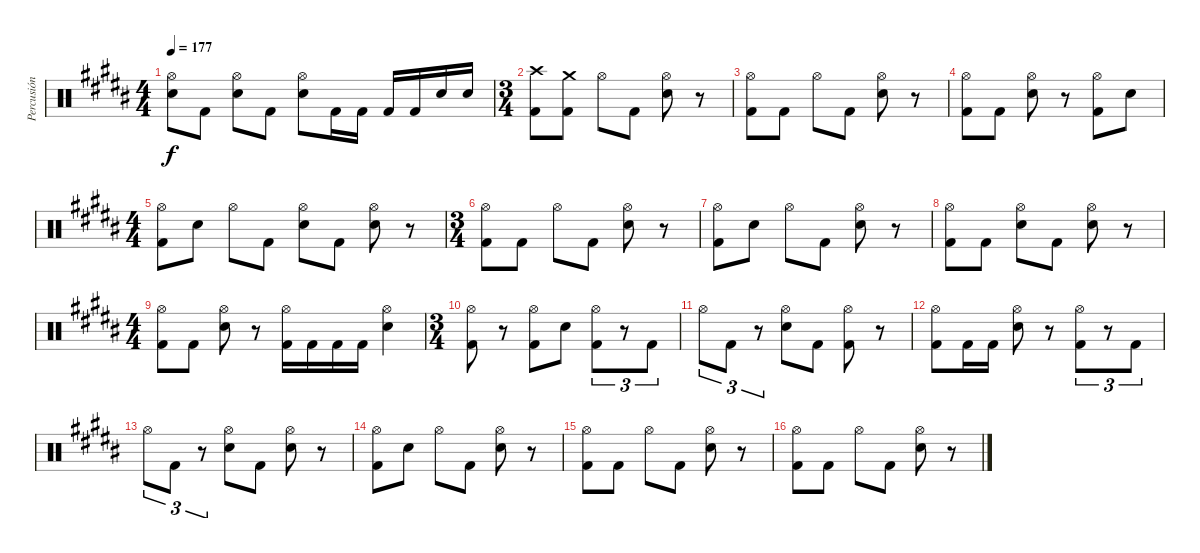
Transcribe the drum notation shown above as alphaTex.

\track ("Percusión" "Percusión") {instrument percussion}
\staff {score}
\articulation defaults
\ts (4 4)
\tempo 177
\clef neutral
\ks g#minor
("Snare (hit) 2" "Hi-Hat (open)").8{dy f} "Kick (hit) 2".8 ("Snare (hit) 2" "Hi-Hat (open)").8 "Kick (hit) 2".8 ("Snare (hit) 2" "Hi-Hat (open)").8 "Kick (hit) 2".16 "Kick (hit) 2".16 "Kick (hit) 2".16 "Kick (hit) 2".16 "Snare (hit) 2".16 "Snare (hit) 2".16 |
\ts (3 4)
("Kick (hit) 2" "Crash high (hit)").8 ("Kick (hit) 2" "Crash medium (hit)").8 "Hi-Hat (open)".8 "Kick (hit) 2".8 ("Snare (hit) 2" "Hi-Hat (open)").8 r.8 |
("Kick (hit) 2" "Hi-Hat (open)").8 "Kick (hit) 2".8 "Hi-Hat (open)".8 "Kick (hit) 2".8 ("Snare (hit) 2" "Hi-Hat (open)").8 r.8 |
("Kick (hit) 2" "Hi-Hat (open)").8 "Kick (hit) 2".8 ("Snare (hit) 2" "Hi-Hat (open)").8 r.8 ("Kick (hit) 2" "Hi-Hat (open)").8 "Snare (hit) 2".8 |
\ts (4 4)
("Kick (hit) 2" "Hi-Hat (open)").8 "Snare (hit) 2".8 "Hi-Hat (open)".8 "Kick (hit) 2".8 ("Snare (hit) 2" "Hi-Hat (open)").8 "Kick (hit) 2".8 ("Snare (hit) 2" "Hi-Hat (open)").8 r.8 |
\ts (3 4)
("Kick (hit) 2" "Hi-Hat (open)").8 "Kick (hit) 2".8 "Hi-Hat (open)".8 "Kick (hit) 2".8 ("Snare (hit) 2" "Hi-Hat (open)").8 r.8 |
("Kick (hit) 2" "Hi-Hat (open)").8 "Snare (hit) 2".8 "Hi-Hat (open)".8 "Kick (hit) 2".8 ("Snare (hit) 2" "Hi-Hat (open)").8 r.8 |
("Kick (hit) 2" "Hi-Hat (open)").8 "Kick (hit) 2".8 ("Snare (hit) 2" "Hi-Hat (open)").8 "Kick (hit) 2".8 ("Snare (hit) 2" "Hi-Hat (open)").8 r.8 |
\ts (4 4)
("Kick (hit) 2" "Hi-Hat (open)").8 "Kick (hit) 2".8 ("Snare (hit) 2" "Hi-Hat (open)").8 r.8 ("Kick (hit) 2" "Hi-Hat (open)").16 "Kick (hit) 2".16 "Kick (hit) 2".16 "Kick (hit) 2".16 ("Snare (hit) 2" "Hi-Hat (open)").4 |
\ts (3 4)
("Kick (hit) 2" "Hi-Hat (open)").8 r.8 ("Kick (hit) 2" "Hi-Hat (open)").8 "Snare (hit) 2".8 ("Kick (hit) 2" "Hi-Hat (open)").8{tu (3 2)} r.8{tu (3 2)} "Kick (hit) 2".8{tu (3 2)} |
"Hi-Hat (open)".8{tu (3 2)} "Kick (hit) 2".8{tu (3 2)} r.8{tu (3 2)} ("Snare (hit) 2" "Hi-Hat (open)").8 "Kick (hit) 2".8 ("Kick (hit) 2" "Hi-Hat (open)").8 r.8 |
("Kick (hit) 2" "Hi-Hat (open)").8 "Kick (hit) 2".16 "Kick (hit) 2".16 ("Snare (hit) 2" "Hi-Hat (open)").8 r.8 ("Kick (hit) 2" "Hi-Hat (open)").8{tu (3 2)} r.8{tu (3 2)} "Kick (hit) 2".8{tu (3 2)} |
"Hi-Hat (open)".8{tu (3 2)} "Kick (hit) 2".8{tu (3 2)} r.8{tu (3 2)} ("Snare (hit) 2" "Hi-Hat (open)").8 "Kick (hit) 2".8 ("Snare (hit) 2" "Hi-Hat (open)").8 r.8 |
("Kick (hit) 2" "Hi-Hat (open)").8 "Snare (hit) 2".8 "Hi-Hat (open)".8 "Kick (hit) 2".8 ("Snare (hit) 2" "Hi-Hat (open)").8 r.8 |
("Kick (hit) 2" "Hi-Hat (open)").8 "Kick (hit) 2".8 "Hi-Hat (open)".8 "Kick (hit) 2".8 ("Snare (hit) 2" "Hi-Hat (open)").8 r.8 |
("Kick (hit) 2" "Hi-Hat (open)").8 "Kick (hit) 2".8 "Hi-Hat (open)".8 "Kick (hit) 2".8 ("Snare (hit) 2" "Hi-Hat (open)").8 r.8
